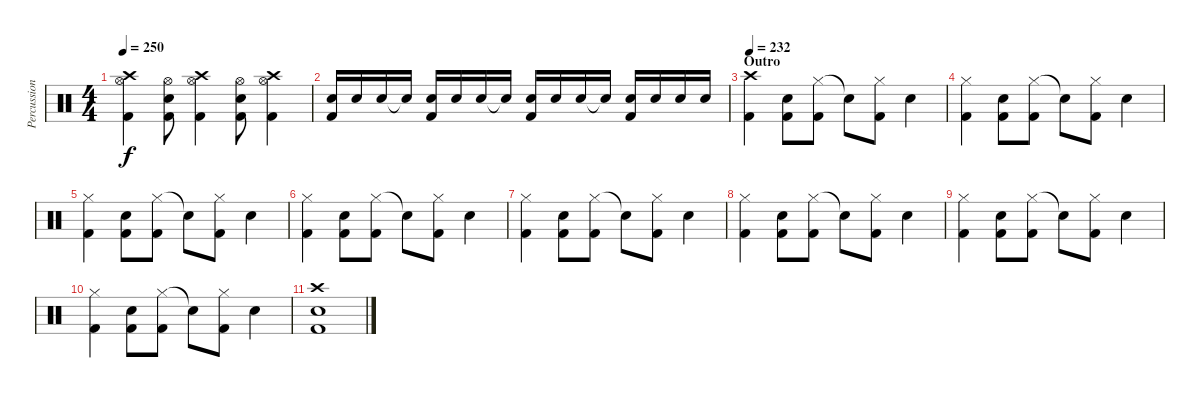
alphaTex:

\track ("Percussion" "Percussion") {instrument percussion}
\staff {score}
\articulation defaults
\ts (4 4)
\tempo 250
\clef neutral
\ks c
("Crash high (hit)" "Hi-Hat (open)" "Kick (hit) 2").4{dy f} ("Hi-Hat (open)" "Electric Snare (hit)" "Kick (hit) 2").8 ("Crash high (hit)" "Hi-Hat (open)" "Kick (hit) 2").4 ("Hi-Hat (open)" "Electric Snare (hit)" "Kick (hit) 2").8 ("Crash high (hit)" "Hi-Hat (open)" "Kick (hit) 2").4 |
("Electric Snare (hit)" "Kick (hit) 2").16 "Electric Snare (hit)".16 "Electric Snare (hit)".16 "Electric Snare (hit)"{t}.16 ("Electric Snare (hit)" "Kick (hit) 2").16 "Electric Snare (hit)".16 "Electric Snare (hit)".16 "Electric Snare (hit)"{t}.16 ("Electric Snare (hit)" "Kick (hit) 2").16 "Electric Snare (hit)".16 "Electric Snare (hit)".16 "Electric Snare (hit)"{t}.16 ("Electric Snare (hit)" "Kick (hit) 2").16 "Electric Snare (hit)".16 "Electric Snare (hit)".16 "Electric Snare (hit)".16 |
\section ("" "Outro")
\tempo 232
("Crash high (hit)" "Kick (hit) 2").4 ("Electric Snare (hit)" "Kick (hit) 2").8 ("Hi-Hat (closed)" "Kick (hit) 2").8 "Snare (hit)"{t}.8 ("Hi-Hat (closed)" "Kick (hit) 2").8 "Electric Snare (hit)".4 |
("Hi-Hat (closed)" "Kick (hit) 2").4 ("Electric Snare (hit)" "Kick (hit) 2").8 ("Hi-Hat (closed)" "Kick (hit) 2").8 "Snare (hit)"{t}.8 ("Hi-Hat (closed)" "Kick (hit) 2").8 "Electric Snare (hit)".4 |
("Hi-Hat (closed)" "Kick (hit) 2").4 ("Electric Snare (hit)" "Kick (hit) 2").8 ("Hi-Hat (closed)" "Kick (hit) 2").8 "Snare (hit)"{t}.8 ("Hi-Hat (closed)" "Kick (hit) 2").8 "Electric Snare (hit)".4 |
("Hi-Hat (closed)" "Kick (hit) 2").4 ("Electric Snare (hit)" "Kick (hit) 2").8 ("Hi-Hat (closed)" "Kick (hit) 2").8 "Snare (hit)"{t}.8 ("Hi-Hat (closed)" "Kick (hit) 2").8 "Electric Snare (hit)".4 |
("Hi-Hat (closed)" "Kick (hit) 2").4 ("Electric Snare (hit)" "Kick (hit) 2").8 ("Hi-Hat (closed)" "Kick (hit) 2").8 "Snare (hit)"{t}.8 ("Hi-Hat (closed)" "Kick (hit) 2").8 "Electric Snare (hit)".4 |
("Hi-Hat (closed)" "Kick (hit) 2").4 ("Electric Snare (hit)" "Kick (hit) 2").8 ("Hi-Hat (closed)" "Kick (hit) 2").8 "Snare (hit)"{t}.8 ("Hi-Hat (closed)" "Kick (hit) 2").8 "Electric Snare (hit)".4 |
("Hi-Hat (closed)" "Kick (hit) 2").4 ("Electric Snare (hit)" "Kick (hit) 2").8 ("Hi-Hat (closed)" "Kick (hit) 2").8 "Snare (hit)"{t}.8 ("Hi-Hat (closed)" "Kick (hit) 2").8 "Electric Snare (hit)".4 |
("Hi-Hat (closed)" "Kick (hit) 2").4 ("Electric Snare (hit)" "Kick (hit) 2").8 ("Hi-Hat (closed)" "Kick (hit) 2").8 "Snare (hit)"{t}.8 ("Hi-Hat (closed)" "Kick (hit) 2").8 "Electric Snare (hit)".4 |
("Crash high (hit)" "Electric Snare (hit)" "Kick (hit) 2").1
